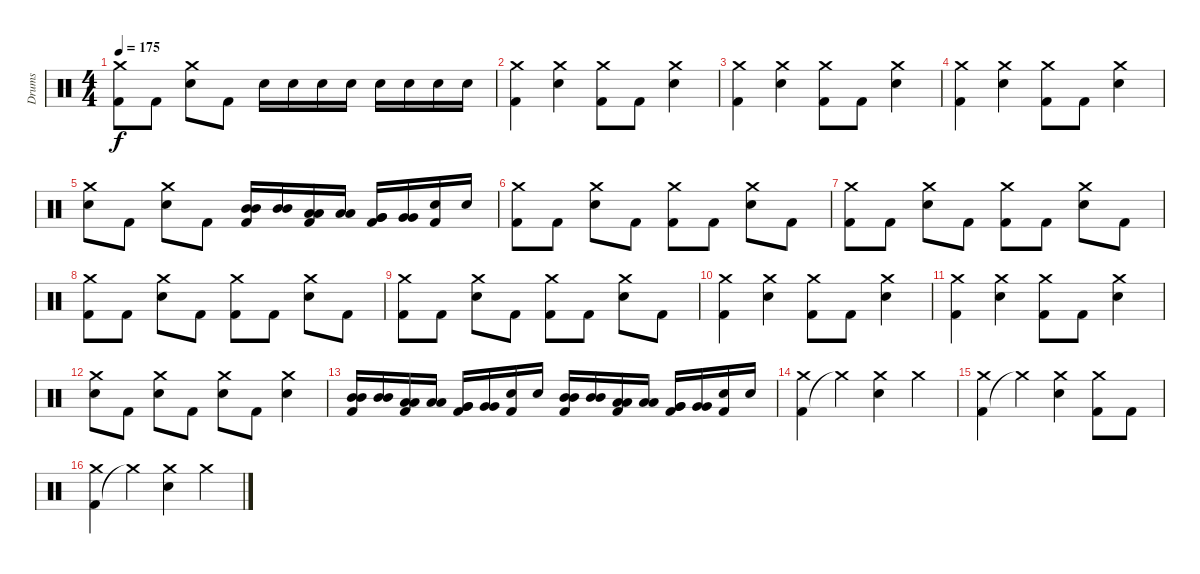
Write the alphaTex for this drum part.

\track ("Drums" "Drums") {instrument percussion}
\staff {score}
\articulation defaults
\ts (4 4)
\tempo 175
\clef neutral
\ks c
("Kick (hit) 2" "Crash medium (hit)").8{dy f} "Kick (hit) 2".8 ("Electric Snare (hit)" "Crash medium (hit)").8 "Kick (hit) 2".8 "Electric Snare (hit)".16 "Electric Snare (hit)".16 "Electric Snare (hit)".16 "Electric Snare (hit)".16 "Electric Snare (hit)".16 "Electric Snare (hit)".16 "Electric Snare (hit)".16 "Electric Snare (hit)".16 |
("Kick (hit) 2" "Crash medium (hit)").4 ("Electric Snare (hit)" "Crash medium (hit)").4 ("Kick (hit) 2" "Crash medium (hit)").8 "Kick (hit) 2".8 ("Electric Snare (hit)" "Crash medium (hit)").4 |
("Kick (hit) 2" "Crash medium (hit)").4 ("Electric Snare (hit)" "Crash medium (hit)").4 ("Kick (hit) 2" "Crash medium (hit)").8 "Kick (hit) 2".8 ("Electric Snare (hit)" "Crash medium (hit)").4 |
("Kick (hit) 2" "Crash medium (hit)").4 ("Electric Snare (hit)" "Crash medium (hit)").4 ("Kick (hit) 2" "Crash medium (hit)").8 "Kick (hit) 2".8 ("Electric Snare (hit)" "Crash medium (hit)").4 |
("Electric Snare (hit)" "Crash medium (hit)").8 "Kick (hit) 2".8 ("Electric Snare (hit)" "Crash medium (hit)").8 "Kick (hit) 2".8 ("Kick (hit) 2" "Mid Tom (hit)" "Mid Tom (hit)").16 ("Mid Tom (hit)" "Mid Tom (hit)").16 ("Kick (hit) 2" "Low Tom (hit)" "Low Tom (hit)").16 ("Low Tom (hit)" "Low Tom (hit)").16 ("Kick (hit) 2" "Very Low Tom (hit)" "Very Low Tom (hit)").16 ("Very Low Tom (hit)" "Very Low Tom (hit)").16 ("Kick (hit) 2" "Electric Snare (hit)").16 "Electric Snare (hit)".16 |
("Kick (hit) 2" "Crash medium (hit)").8 "Kick (hit) 2".8 ("Electric Snare (hit)" "Crash medium (hit)").8 "Kick (hit) 2".8 ("Kick (hit) 2" "Crash medium (hit)").8 "Kick (hit) 2".8 ("Electric Snare (hit)" "Crash medium (hit)").8 "Kick (hit) 2".8 |
("Kick (hit) 2" "Crash medium (hit)").8 "Kick (hit) 2".8 ("Electric Snare (hit)" "Crash medium (hit)").8 "Kick (hit) 2".8 ("Kick (hit) 2" "Crash medium (hit)").8 "Kick (hit) 2".8 ("Electric Snare (hit)" "Crash medium (hit)").8 "Kick (hit) 2".8 |
("Kick (hit) 2" "Crash medium (hit)").8 "Kick (hit) 2".8 ("Electric Snare (hit)" "Crash medium (hit)").8 "Kick (hit) 2".8 ("Kick (hit) 2" "Crash medium (hit)").8 "Kick (hit) 2".8 ("Electric Snare (hit)" "Crash medium (hit)").8 "Kick (hit) 2".8 |
("Kick (hit) 2" "Crash medium (hit)").8 "Kick (hit) 2".8 ("Electric Snare (hit)" "Crash medium (hit)").8 "Kick (hit) 2".8 ("Kick (hit) 2" "Crash medium (hit)").8 "Kick (hit) 2".8 ("Electric Snare (hit)" "Crash medium (hit)").8 "Kick (hit) 2".8 |
("Kick (hit) 2" "Crash medium (hit)").4 ("Electric Snare (hit)" "Crash medium (hit)").4 ("Kick (hit) 2" "Crash medium (hit)").8 "Kick (hit) 2".8 ("Electric Snare (hit)" "Crash medium (hit)").4 |
("Kick (hit) 2" "Crash medium (hit)").4 ("Electric Snare (hit)" "Crash medium (hit)").4 ("Kick (hit) 2" "Crash medium (hit)").8 "Kick (hit) 2".8 ("Electric Snare (hit)" "Crash medium (hit)").4 |
("Electric Snare (hit)" "Crash medium (hit)").8 "Kick (hit) 2".8 ("Electric Snare (hit)" "Crash medium (hit)").8 "Kick (hit) 2".8 ("Electric Snare (hit)" "Crash medium (hit)").8 "Kick (hit) 2".8 ("Electric Snare (hit)" "Crash medium (hit)").4 |
("Kick (hit) 2" "Mid Tom (hit)" "Mid Tom (hit)").16 ("Mid Tom (hit)" "Mid Tom (hit)").16 ("Kick (hit) 2" "Low Tom (hit)" "Low Tom (hit)").16 ("Low Tom (hit)" "Low Tom (hit)").16 ("Kick (hit) 2" "Very Low Tom (hit)" "Very Low Tom (hit)").16 ("Very Low Tom (hit)" "Very Low Tom (hit)").16 ("Kick (hit) 2" "Electric Snare (hit)").16 "Electric Snare (hit)".16 ("Kick (hit) 2" "Mid Tom (hit)" "Mid Tom (hit)").16 ("Mid Tom (hit)" "Mid Tom (hit)").16 ("Kick (hit) 2" "Low Tom (hit)" "Low Tom (hit)").16 ("Low Tom (hit)" "Low Tom (hit)").16 ("Kick (hit) 2" "Very Low Tom (hit)" "Very Low Tom (hit)").16 ("Very Low Tom (hit)" "Very Low Tom (hit)").16 ("Kick (hit) 2" "Electric Snare (hit)").16 "Electric Snare (hit)".16 |
("Kick (hit) 2" "Crash medium (hit)").4 "Crash medium (hit)"{t}.4 ("Electric Snare (hit)" "Crash medium (hit)").4 "Crash medium (hit)".4 |
("Kick (hit) 2" "Crash medium (hit)").4 "Crash medium (hit)"{t}.4 ("Electric Snare (hit)" "Crash medium (hit)").4 ("Kick (hit) 2" "Crash medium (hit)").8 "Kick (hit) 2".8 |
("Kick (hit) 2" "Crash medium (hit)").4 "Crash medium (hit)"{t}.4 ("Electric Snare (hit)" "Crash medium (hit)").4 "Crash medium (hit)".4
